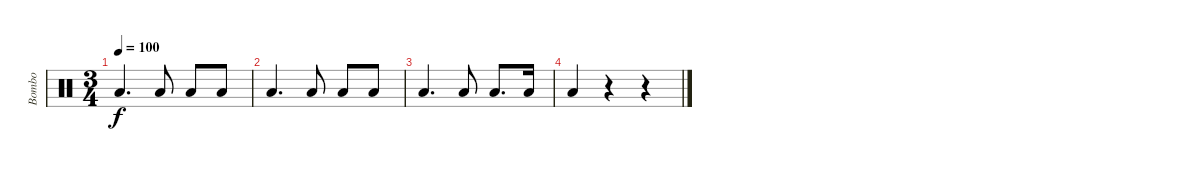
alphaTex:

\track ("Bombo" "Bombo") {instrument percussion}
\staff {score}
\articulation defaults
\ts (3 4)
\tempo 100
\clef neutral
\ks c "Low Floor Tom (hit)".4{d dy f} "Low Floor Tom (hit)".8 "Low Floor Tom (hit)".8 "Low Floor Tom (hit)".8
|
"Low Floor Tom (hit)".4{d} "Low Floor Tom (hit)".8 "Low Floor Tom (hit)".8 "Low Floor Tom (hit)".8 |
"Low Floor Tom (hit)".4{d} "Low Floor Tom (hit)".8 "Low Floor Tom (hit)".8{d} "Low Floor Tom (hit)".16 |
"Low Floor Tom (hit)".4 r.4 r.4
